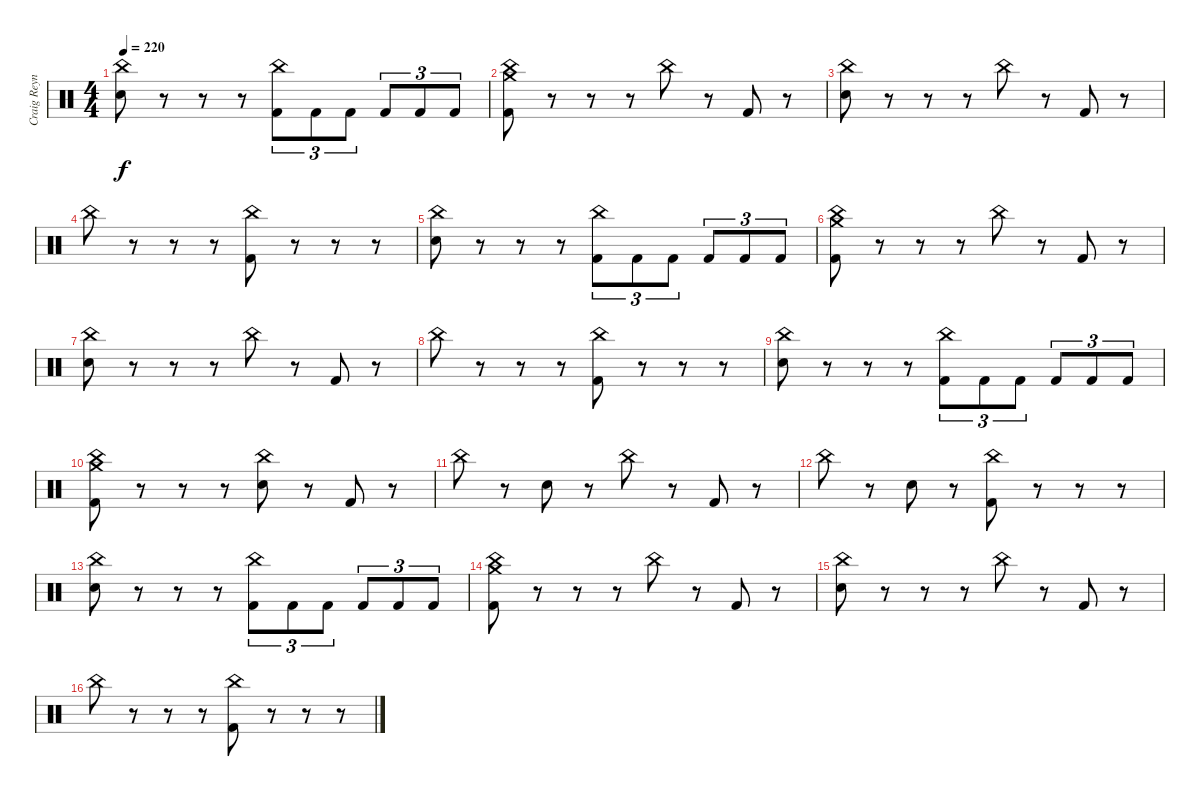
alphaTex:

\track ("Craig Reynolds" "Craig Reyn") {instrument percussion}
\staff {score}
\articulation defaults
\ts (4 4)
\tempo 220
\clef neutral
\ks c
("China (hit)" "Electric Snare (hit)").8{dy f} r.8 r.8 r.8 ("China (hit)" "Kick (hit) 2").8{tu (3 2)} "Kick (hit) 2".8{tu (3 2)} "Kick (hit) 2".8{tu (3 2)} "Kick (hit) 2".8{tu (3 2)} "Kick (hit) 2".8{tu (3 2)} "Kick (hit) 2".8{tu (3 2)} |
("Crash medium (hit)" "China (hit)" "Kick (hit) 2").8 r.8 r.8 r.8 "China (hit)".8 r.8 "Kick (hit) 2".8 r.8 |
("China (hit)" "Electric Snare (hit)").8 r.8 r.8 r.8 "China (hit)".8 r.8 "Kick (hit) 2".8 r.8 |
"China (hit)".8 r.8 r.8 r.8 ("China (hit)" "Kick (hit) 2").8 r.8 r.8 r.8 |
("China (hit)" "Electric Snare (hit)").8 r.8 r.8 r.8 ("China (hit)" "Kick (hit) 2").8{tu (3 2)} "Kick (hit) 2".8{tu (3 2)} "Kick (hit) 2".8{tu (3 2)} "Kick (hit) 2".8{tu (3 2)} "Kick (hit) 2".8{tu (3 2)} "Kick (hit) 2".8{tu (3 2)} |
("Crash medium (hit)" "China (hit)" "Kick (hit) 2").8 r.8 r.8 r.8 "China (hit)".8 r.8 "Kick (hit) 2".8 r.8 |
("China (hit)" "Electric Snare (hit)").8 r.8 r.8 r.8 "China (hit)".8 r.8 "Kick (hit) 2".8 r.8 |
"China (hit)".8 r.8 r.8 r.8 ("China (hit)" "Kick (hit) 2").8 r.8 r.8 r.8 |
("China (hit)" "Electric Snare (hit)").8 r.8 r.8 r.8 ("China (hit)" "Kick (hit) 2").8{tu (3 2)} "Kick (hit) 2".8{tu (3 2)} "Kick (hit) 2".8{tu (3 2)} "Kick (hit) 2".8{tu (3 2)} "Kick (hit) 2".8{tu (3 2)} "Kick (hit) 2".8{tu (3 2)} |
("Crash medium (hit)" "China (hit)" "Kick (hit) 2").8 r.8 r.8 r.8 ("China (hit)" "Electric Snare (hit)").8 r.8 "Kick (hit) 2".8 r.8 |
"China (hit)".8 r.8 "Electric Snare (hit)".8 r.8 "China (hit)".8 r.8 "Kick (hit) 2".8 r.8 |
"China (hit)".8 r.8 "Electric Snare (hit)".8 r.8 ("China (hit)" "Kick (hit) 2").8 r.8 r.8 r.8 |
("China (hit)" "Electric Snare (hit)").8 r.8 r.8 r.8 ("China (hit)" "Kick (hit) 2").8{tu (3 2)} "Kick (hit) 2".8{tu (3 2)} "Kick (hit) 2".8{tu (3 2)} "Kick (hit) 2".8{tu (3 2)} "Kick (hit) 2".8{tu (3 2)} "Kick (hit) 2".8{tu (3 2)} |
("Crash medium (hit)" "China (hit)" "Kick (hit) 2").8 r.8 r.8 r.8 "China (hit)".8 r.8 "Kick (hit) 2".8 r.8 |
("China (hit)" "Electric Snare (hit)").8 r.8 r.8 r.8 "China (hit)".8 r.8 "Kick (hit) 2".8 r.8 |
"China (hit)".8 r.8 r.8 r.8 ("China (hit)" "Kick (hit) 2").8 r.8 r.8 r.8
